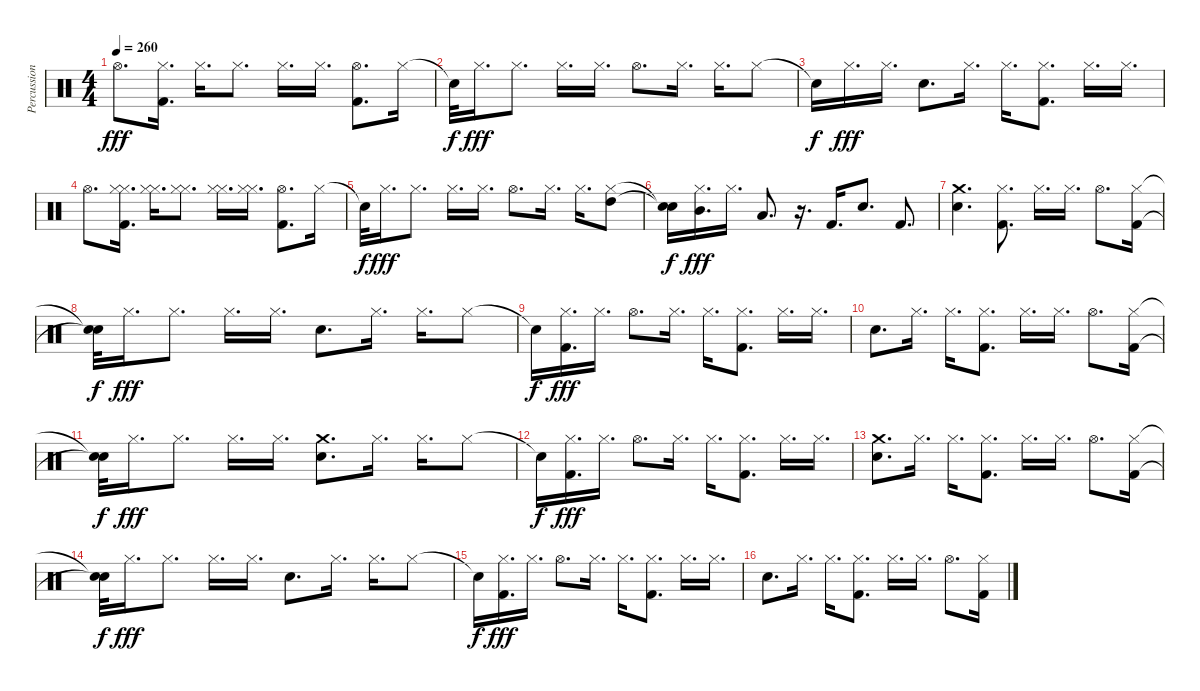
\track ("Percussion" "Percussion") {instrument percussion}
\staff {score}
\articulation defaults
\ts (4 4)
\tempo 260
\clef neutral
\ks c "Hi-Hat (open)".8{d dy fff}
("Hi-Hat (closed)" "Kick (hit) 2").16{d} "Hi-Hat (closed)".16{d} "Hi-Hat (closed)".8{d} "Hi-Hat (closed)".16{d} "Hi-Hat (closed)".16{d} ("Hi-Hat (open)" "Kick (hit) 2").8{d} "Hi-Hat (closed)".16 |
"Snare (hit)"{t}.32{dy f} "Hi-Hat (closed)".16{d dy fff} "Hi-Hat (closed)".8{d} "Hi-Hat (closed)".16{d} "Hi-Hat (closed)".16{d} "Hi-Hat (open)".8{d} "Hi-Hat (closed)".16{d} "Hi-Hat (closed)".16{d} "Hi-Hat (closed)".8 |
"Snare (hit)"{t}.16{dy f} "Hi-Hat (closed)".16{d dy fff} "Hi-Hat (closed)".16{d} "Electric Snare (hit)".8{d} "Hi-Hat (closed)".16{d} "Hi-Hat (closed)".16{d} ("Hi-Hat (closed)" "Kick (hit) 2").8{d} "Hi-Hat (closed)".16{d} "Hi-Hat (closed)".16{d} |
"Hi-Hat (open)".8{d} ("Hi-Hat (closed)" "Hi-Hat (closed)" "Kick (hit) 2").16{d} ("Hi-Hat (closed)" "Hi-Hat (closed)").16{d} ("Hi-Hat (closed)" "Hi-Hat (closed)").8{d} ("Hi-Hat (closed)" "Hi-Hat (closed)").16{d} ("Hi-Hat (closed)" "Hi-Hat (closed)").16{d} ("Hi-Hat (open)" "Kick (hit) 2").8{d} "Hi-Hat (closed)".16 |
"Snare (hit)"{t}.32{dy f} "Hi-Hat (closed)".16{d dy fff} "Hi-Hat (closed)".8{d} "Hi-Hat (closed)".16{d} "Hi-Hat (closed)".16{d} "Hi-Hat (open)".8{d} "Hi-Hat (closed)".16{d} "Hi-Hat (closed)".16{d} ("Hi-Hat (closed)" "High Tom (hit)").8 |
("Snare (hit)"{t} "Snare (hit)"{t}).16{dy f} ("Hi-Hat (closed)" "Mid Tom (hit)").16{d dy fff} "Hi-Hat (closed)".16{d} "Low Tom (hit)".8{d} r.16{d} "Kick (hit) 2".16{d} "Electric Snare (hit)".8{d} "Kick (hit) 2".8{d} |
("Electric Snare (hit)" "Crash medium (hit)").4{d} ("Kick (hit) 2" "Hi-Hat (closed)").8{d} "Hi-Hat (closed)".16{d} "Hi-Hat (closed)".16{d} "Hi-Hat (open)".8{d} ("Kick (hit) 2" "Hi-Hat (closed)").16 |
("Snare (hit)"{t} "Snare (hit)"{t}).32{dy f} "Hi-Hat (closed)".16{d dy fff} "Hi-Hat (closed)".8{d} "Hi-Hat (closed)".16{d} "Hi-Hat (closed)".16{d} "Electric Snare (hit)".8{d} "Hi-Hat (closed)".16{d} "Hi-Hat (closed)".16{d} "Hi-Hat (closed)".8 |
"Snare (hit)"{t}.16{dy f} ("Kick (hit) 2" "Hi-Hat (closed)").16{d dy fff} "Hi-Hat (closed)".16{d} "Hi-Hat (open)".8{d} "Hi-Hat (closed)".16{d} "Hi-Hat (closed)".16{d} ("Kick (hit) 2" "Hi-Hat (closed)").8{d} "Hi-Hat (closed)".16{d} "Hi-Hat (closed)".16{d} |
"Electric Snare (hit)".8{d} "Hi-Hat (closed)".16{d} "Hi-Hat (closed)".16{d} ("Kick (hit) 2" "Hi-Hat (closed)").8{d} "Hi-Hat (closed)".16{d} "Hi-Hat (closed)".16{d} "Hi-Hat (open)".8{d} ("Kick (hit) 2" "Hi-Hat (closed)").16 |
("Snare (hit)"{t} "Snare (hit)"{t}).32{dy f} "Hi-Hat (closed)".16{d dy fff} "Hi-Hat (closed)".8{d} "Hi-Hat (closed)".16{d} "Hi-Hat (closed)".16{d} ("Electric Snare (hit)" "Crash medium (hit)").8{d} "Hi-Hat (closed)".16{d} "Hi-Hat (closed)".16{d} "Hi-Hat (closed)".8 |
"Snare (hit)"{t}.16{dy f} ("Kick (hit) 2" "Hi-Hat (closed)").16{d dy fff} "Hi-Hat (closed)".16{d} "Hi-Hat (open)".8{d} "Hi-Hat (closed)".16{d} "Hi-Hat (closed)".16{d} ("Kick (hit) 2" "Hi-Hat (closed)").8{d} "Hi-Hat (closed)".16{d} "Hi-Hat (closed)".16{d} |
("Electric Snare (hit)" "Crash medium (hit)").8{d} "Hi-Hat (closed)".16{d} "Hi-Hat (closed)".16{d} ("Kick (hit) 2" "Hi-Hat (closed)").8{d} "Hi-Hat (closed)".16{d} "Hi-Hat (closed)".16{d} "Hi-Hat (open)".8{d} ("Kick (hit) 2" "Hi-Hat (closed)").16 |
("Snare (hit)"{t} "Snare (hit)"{t}).32{dy f} "Hi-Hat (closed)".16{d dy fff} "Hi-Hat (closed)".8{d} "Hi-Hat (closed)".16{d} "Hi-Hat (closed)".16{d} "Electric Snare (hit)".8{d} "Hi-Hat (closed)".16{d} "Hi-Hat (closed)".16{d} "Hi-Hat (closed)".8 |
"Snare (hit)"{t}.16{dy f} ("Kick (hit) 2" "Hi-Hat (closed)").16{d dy fff} "Hi-Hat (closed)".16{d} "Hi-Hat (open)".8{d} "Hi-Hat (closed)".16{d} "Hi-Hat (closed)".16{d} ("Kick (hit) 2" "Hi-Hat (closed)").8{d} "Hi-Hat (closed)".16{d} "Hi-Hat (closed)".16{d} |
"Electric Snare (hit)".8{d} "Hi-Hat (closed)".16{d} "Hi-Hat (closed)".16{d} ("Kick (hit) 2" "Hi-Hat (closed)").8{d} "Hi-Hat (closed)".16{d} "Hi-Hat (closed)".16{d} "Hi-Hat (open)".8{d} ("Kick (hit) 2" "Hi-Hat (closed)").16
